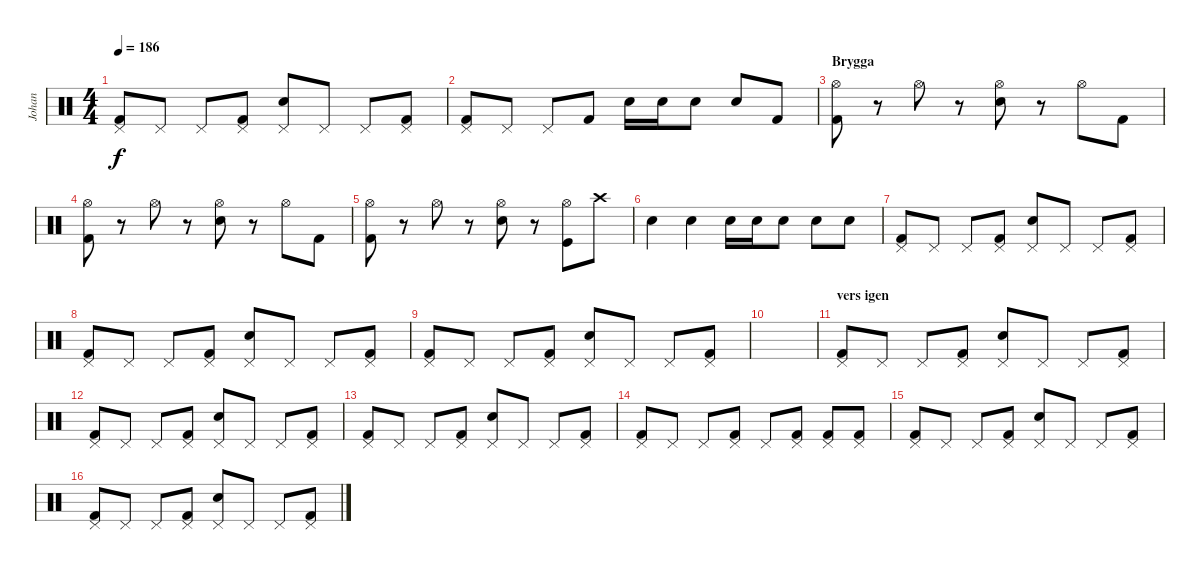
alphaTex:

\track ("Johan" "Johan") {instrument percussion}
\staff {score}
\articulation defaults
\ts (4 4)
\tempo 186
\clef neutral
\ks c
("Pedal Hi-Hat (hit)" "Kick (hit) 2").8{dy f} "Pedal Hi-Hat (hit)".8 "Pedal Hi-Hat (hit)".8 ("Pedal Hi-Hat (hit)" "Kick (hit) 2").8 ("Pedal Hi-Hat (hit)" "Snare (hit) 2").8 "Pedal Hi-Hat (hit)".8 "Pedal Hi-Hat (hit)".8 ("Pedal Hi-Hat (hit)" "Kick (hit) 2").8 |
("Pedal Hi-Hat (hit)" "Kick (hit) 2").8 "Pedal Hi-Hat (hit)".8 "Pedal Hi-Hat (hit)".8 "Kick (hit) 2".8 "Snare (hit) 2".16 "Snare (hit) 2".16 "Snare (hit) 2".8 "Snare (hit) 2".8 "Kick (hit) 2".8 |
\section ("" "Brygga")
("Hi-Hat (open)" "Kick (hit) 2").8 r.8 "Hi-Hat (open)".8 r.8 ("Hi-Hat (open)" "Snare (hit) 2").8 r.8 "Hi-Hat (open)".8 "Kick (hit) 2".8 |
("Hi-Hat (open)" "Kick (hit) 2").8 r.8 "Hi-Hat (open)".8 r.8 ("Hi-Hat (open)" "Snare (hit) 2").8 r.8 "Hi-Hat (open)".8 "Kick (hit) 2".8 |
("Hi-Hat (open)" "Kick (hit) 2").8 r.8 "Hi-Hat (open)".8 r.8 ("Hi-Hat (open)" "Snare (hit) 2").8 r.8 ("Hi-Hat (open)" "Kick (hit)").8 "Crash high (hit)".8 |
"Snare (hit) 2".4 "Snare (hit) 2".4 "Snare (hit) 2".16 "Snare (hit) 2".16 "Snare (hit) 2".8 "Snare (hit) 2".8 "Snare (hit) 2".8 |
("Pedal Hi-Hat (hit)" "Kick (hit) 2").8 "Pedal Hi-Hat (hit)".8 "Pedal Hi-Hat (hit)".8 ("Pedal Hi-Hat (hit)" "Kick (hit) 2").8 ("Pedal Hi-Hat (hit)" "Snare (hit) 2").8 "Pedal Hi-Hat (hit)".8 "Pedal Hi-Hat (hit)".8 ("Pedal Hi-Hat (hit)" "Kick (hit) 2").8 |
("Pedal Hi-Hat (hit)" "Kick (hit) 2").8 "Pedal Hi-Hat (hit)".8 "Pedal Hi-Hat (hit)".8 ("Pedal Hi-Hat (hit)" "Kick (hit) 2").8 ("Pedal Hi-Hat (hit)" "Snare (hit) 2").8 "Pedal Hi-Hat (hit)".8 "Pedal Hi-Hat (hit)".8 ("Pedal Hi-Hat (hit)" "Kick (hit) 2").8 |
("Pedal Hi-Hat (hit)" "Kick (hit) 2").8 "Pedal Hi-Hat (hit)".8 "Pedal Hi-Hat (hit)".8 ("Pedal Hi-Hat (hit)" "Kick (hit) 2").8 ("Pedal Hi-Hat (hit)" "Snare (hit) 2").8 "Pedal Hi-Hat (hit)".8 "Pedal Hi-Hat (hit)".8 ("Pedal Hi-Hat (hit)" "Kick (hit) 2").8 |
|
\section ("" "vers igen")
("Pedal Hi-Hat (hit)" "Kick (hit) 2").8 "Pedal Hi-Hat (hit)".8 "Pedal Hi-Hat (hit)".8 ("Pedal Hi-Hat (hit)" "Kick (hit) 2").8 ("Pedal Hi-Hat (hit)" "Snare (hit) 2").8 "Pedal Hi-Hat (hit)".8 "Pedal Hi-Hat (hit)".8 ("Pedal Hi-Hat (hit)" "Kick (hit) 2").8 |
("Pedal Hi-Hat (hit)" "Kick (hit) 2").8 "Pedal Hi-Hat (hit)".8 "Pedal Hi-Hat (hit)".8 ("Pedal Hi-Hat (hit)" "Kick (hit) 2").8 ("Pedal Hi-Hat (hit)" "Snare (hit) 2").8 "Pedal Hi-Hat (hit)".8 "Pedal Hi-Hat (hit)".8 ("Pedal Hi-Hat (hit)" "Kick (hit) 2").8 |
("Pedal Hi-Hat (hit)" "Kick (hit) 2").8 "Pedal Hi-Hat (hit)".8 "Pedal Hi-Hat (hit)".8 ("Pedal Hi-Hat (hit)" "Kick (hit) 2").8 ("Pedal Hi-Hat (hit)" "Snare (hit) 2").8 "Pedal Hi-Hat (hit)".8 "Pedal Hi-Hat (hit)".8 ("Pedal Hi-Hat (hit)" "Kick (hit) 2").8 |
("Pedal Hi-Hat (hit)" "Kick (hit) 2").8 "Pedal Hi-Hat (hit)".8 "Pedal Hi-Hat (hit)".8 ("Pedal Hi-Hat (hit)" "Kick (hit) 2").8 "Pedal Hi-Hat (hit)".8 ("Pedal Hi-Hat (hit)" "Kick (hit) 2").8 ("Pedal Hi-Hat (hit)" "Kick (hit) 2").8 ("Pedal Hi-Hat (hit)" "Kick (hit) 2").8 |
("Pedal Hi-Hat (hit)" "Kick (hit) 2").8 "Pedal Hi-Hat (hit)".8 "Pedal Hi-Hat (hit)".8 ("Pedal Hi-Hat (hit)" "Kick (hit) 2").8 ("Pedal Hi-Hat (hit)" "Snare (hit) 2").8 "Pedal Hi-Hat (hit)".8 "Pedal Hi-Hat (hit)".8 ("Pedal Hi-Hat (hit)" "Kick (hit) 2").8 |
("Pedal Hi-Hat (hit)" "Kick (hit) 2").8 "Pedal Hi-Hat (hit)".8 "Pedal Hi-Hat (hit)".8 ("Pedal Hi-Hat (hit)" "Kick (hit) 2").8 ("Pedal Hi-Hat (hit)" "Snare (hit) 2").8 "Pedal Hi-Hat (hit)".8 "Pedal Hi-Hat (hit)".8 ("Pedal Hi-Hat (hit)" "Kick (hit) 2").8
